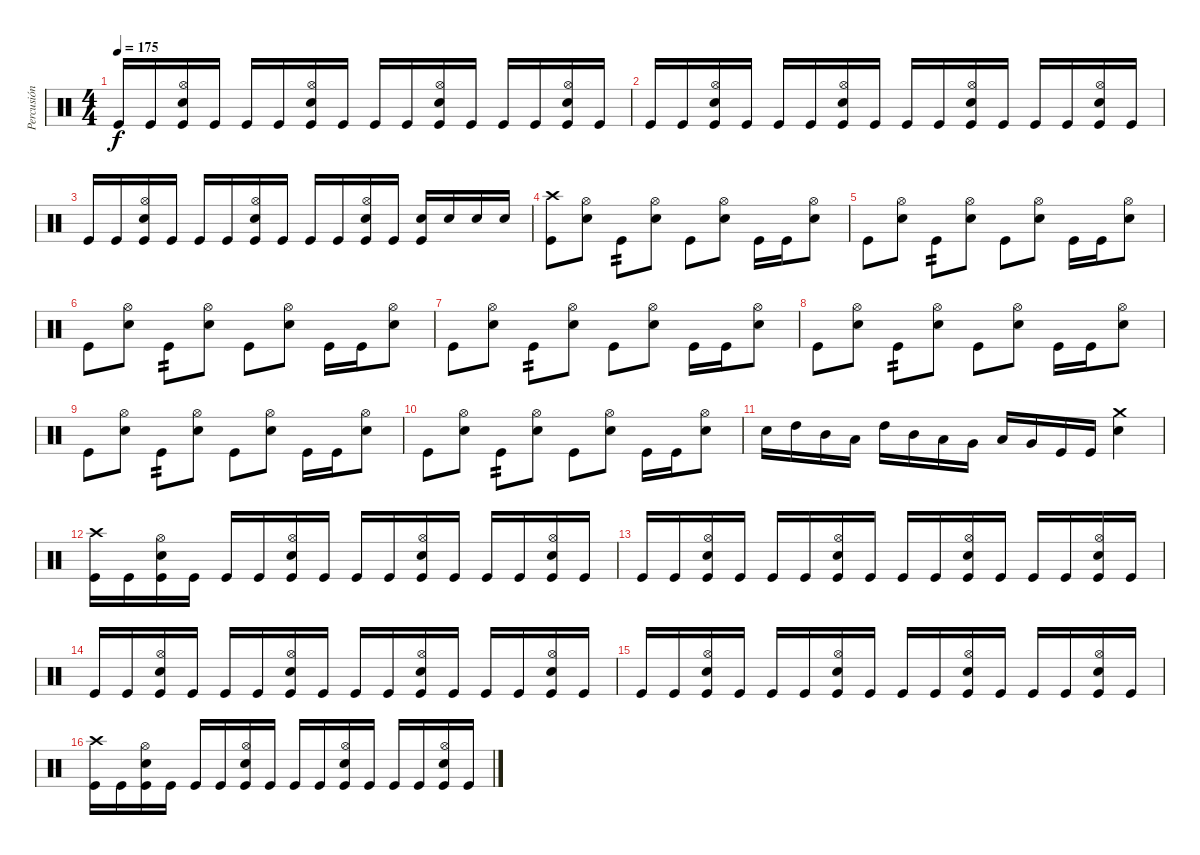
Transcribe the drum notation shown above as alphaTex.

\track ("Percusión" "Percusión") {instrument percussion}
\staff {score}
\articulation defaults
\ts (4 4)
\tempo 175
\clef neutral
\ks c "Kick (hit)".16{dy f} "Kick (hit)".16
("Hi-Hat (open)" "Snare (hit) 2" "Kick (hit)").16 "Kick (hit)".16 "Kick (hit)".16 "Kick (hit)".16 ("Hi-Hat (open)" "Snare (hit) 2" "Kick (hit)").16 "Kick (hit)".16 "Kick (hit)".16 "Kick (hit)".16 ("Hi-Hat (open)" "Snare (hit) 2" "Kick (hit)").16 "Kick (hit)".16 "Kick (hit)".16 "Kick (hit)".16 ("Hi-Hat (open)" "Snare (hit) 2" "Kick (hit)").16 "Kick (hit)".16 |
"Kick (hit)".16 "Kick (hit)".16 ("Hi-Hat (open)" "Snare (hit) 2" "Kick (hit)").16 "Kick (hit)".16 "Kick (hit)".16 "Kick (hit)".16 ("Hi-Hat (open)" "Snare (hit) 2" "Kick (hit)").16 "Kick (hit)".16 "Kick (hit)".16 "Kick (hit)".16 ("Hi-Hat (open)" "Snare (hit) 2" "Kick (hit)").16 "Kick (hit)".16 "Kick (hit)".16 "Kick (hit)".16 ("Hi-Hat (open)" "Snare (hit) 2" "Kick (hit)").16 "Kick (hit)".16 |
"Kick (hit)".16 "Kick (hit)".16 ("Hi-Hat (open)" "Snare (hit) 2" "Kick (hit)").16 "Kick (hit)".16 "Kick (hit)".16 "Kick (hit)".16 ("Hi-Hat (open)" "Snare (hit) 2" "Kick (hit)").16 "Kick (hit)".16 "Kick (hit)".16 "Kick (hit)".16 ("Hi-Hat (open)" "Snare (hit) 2" "Kick (hit)").16 "Kick (hit)".16 ("Snare (hit) 2" "Kick (hit)").16 "Snare (hit) 2".16 "Snare (hit) 2".16 "Snare (hit) 2".16 |
("Crash high (hit)" "Kick (hit)").8 ("Hi-Hat (open)" "Snare (hit) 2").8 "Kick (hit)".8{tp 2} ("Hi-Hat (open)" "Snare (hit) 2").8 "Kick (hit)".8 ("Hi-Hat (open)" "Snare (hit) 2").8 "Kick (hit)".16 "Kick (hit)".16 ("Hi-Hat (open)" "Snare (hit) 2").8 |
"Kick (hit)".8 ("Hi-Hat (open)" "Snare (hit) 2").8 "Kick (hit)".8{tp 2} ("Hi-Hat (open)" "Snare (hit) 2").8 "Kick (hit)".8 ("Hi-Hat (open)" "Snare (hit) 2").8 "Kick (hit)".16 "Kick (hit)".16 ("Hi-Hat (open)" "Snare (hit) 2").8 |
"Kick (hit)".8 ("Hi-Hat (open)" "Snare (hit) 2").8 "Kick (hit)".8{tp 2} ("Hi-Hat (open)" "Snare (hit) 2").8 "Kick (hit)".8 ("Hi-Hat (open)" "Snare (hit) 2").8 "Kick (hit)".16 "Kick (hit)".16 ("Hi-Hat (open)" "Snare (hit) 2").8 |
"Kick (hit)".8 ("Hi-Hat (open)" "Snare (hit) 2").8 "Kick (hit)".8{tp 2} ("Hi-Hat (open)" "Snare (hit) 2").8 "Kick (hit)".8 ("Hi-Hat (open)" "Snare (hit) 2").8 "Kick (hit)".16 "Kick (hit)".16 ("Hi-Hat (open)" "Snare (hit) 2").8 |
"Kick (hit)".8 ("Hi-Hat (open)" "Snare (hit) 2").8 "Kick (hit)".8{tp 2} ("Hi-Hat (open)" "Snare (hit) 2").8 "Kick (hit)".8 ("Hi-Hat (open)" "Snare (hit) 2").8 "Kick (hit)".16 "Kick (hit)".16 ("Hi-Hat (open)" "Snare (hit) 2").8 |
"Kick (hit)".8 ("Hi-Hat (open)" "Snare (hit) 2").8 "Kick (hit)".8{tp 2} ("Hi-Hat (open)" "Snare (hit) 2").8 "Kick (hit)".8 ("Hi-Hat (open)" "Snare (hit) 2").8 "Kick (hit)".16 "Kick (hit)".16 ("Hi-Hat (open)" "Snare (hit) 2").8 |
"Kick (hit)".8 ("Hi-Hat (open)" "Snare (hit) 2").8 "Kick (hit)".8{tp 2} ("Hi-Hat (open)" "Snare (hit) 2").8 "Kick (hit)".8 ("Hi-Hat (open)" "Snare (hit) 2").8 "Kick (hit)".16 "Kick (hit)".16 ("Hi-Hat (open)" "Snare (hit) 2").8 |
"Snare (hit) 2".16 "High Tom (hit)".16 "Mid Tom (hit)".16 "Low Tom (hit)".16 "High Tom (hit)".16 "Mid Tom (hit)".16 "Low Tom (hit)".16 "Very Low Tom (hit)".16 "Low Tom (hit)".16 "Very Low Tom (hit)".16 "Kick (hit)".16 "Kick (hit)".16 ("Crash medium (hit)" "Snare (hit) 2").4 |
("Crash high (hit)" "Kick (hit)").16 "Kick (hit)".16 ("Hi-Hat (open)" "Snare (hit) 2" "Kick (hit)").16 "Kick (hit)".16 "Kick (hit)".16 "Kick (hit)".16 ("Hi-Hat (open)" "Snare (hit) 2" "Kick (hit)").16 "Kick (hit)".16 "Kick (hit)".16 "Kick (hit)".16 ("Hi-Hat (open)" "Snare (hit) 2" "Kick (hit)").16 "Kick (hit)".16 "Kick (hit)".16 "Kick (hit)".16 ("Hi-Hat (open)" "Snare (hit) 2" "Kick (hit)").16 "Kick (hit)".16 |
"Kick (hit)".16 "Kick (hit)".16 ("Hi-Hat (open)" "Snare (hit) 2" "Kick (hit)").16 "Kick (hit)".16 "Kick (hit)".16 "Kick (hit)".16 ("Hi-Hat (open)" "Snare (hit) 2" "Kick (hit)").16 "Kick (hit)".16 "Kick (hit)".16 "Kick (hit)".16 ("Hi-Hat (open)" "Snare (hit) 2" "Kick (hit)").16 "Kick (hit)".16 "Kick (hit)".16 "Kick (hit)".16 ("Hi-Hat (open)" "Snare (hit) 2" "Kick (hit)").16 "Kick (hit)".16 |
"Kick (hit)".16 "Kick (hit)".16 ("Hi-Hat (open)" "Snare (hit) 2" "Kick (hit)").16 "Kick (hit)".16 "Kick (hit)".16 "Kick (hit)".16 ("Hi-Hat (open)" "Snare (hit) 2" "Kick (hit)").16 "Kick (hit)".16 "Kick (hit)".16 "Kick (hit)".16 ("Hi-Hat (open)" "Snare (hit) 2" "Kick (hit)").16 "Kick (hit)".16 "Kick (hit)".16 "Kick (hit)".16 ("Hi-Hat (open)" "Snare (hit) 2" "Kick (hit)").16 "Kick (hit)".16 |
"Kick (hit)".16 "Kick (hit)".16 ("Hi-Hat (open)" "Snare (hit) 2" "Kick (hit)").16 "Kick (hit)".16 "Kick (hit)".16 "Kick (hit)".16 ("Hi-Hat (open)" "Snare (hit) 2" "Kick (hit)").16 "Kick (hit)".16 "Kick (hit)".16 "Kick (hit)".16 ("Hi-Hat (open)" "Snare (hit) 2" "Kick (hit)").16 "Kick (hit)".16 "Kick (hit)".16 "Kick (hit)".16 ("Hi-Hat (open)" "Snare (hit) 2" "Kick (hit)").16 "Kick (hit)".16 |
("Crash high (hit)" "Kick (hit)").16 "Kick (hit)".16 ("Hi-Hat (open)" "Snare (hit) 2" "Kick (hit)").16 "Kick (hit)".16 "Kick (hit)".16 "Kick (hit)".16 ("Hi-Hat (open)" "Snare (hit) 2" "Kick (hit)").16 "Kick (hit)".16 "Kick (hit)".16 "Kick (hit)".16 ("Hi-Hat (open)" "Snare (hit) 2" "Kick (hit)").16 "Kick (hit)".16 "Kick (hit)".16 "Kick (hit)".16 ("Hi-Hat (open)" "Snare (hit) 2" "Kick (hit)").16 "Kick (hit)".16
